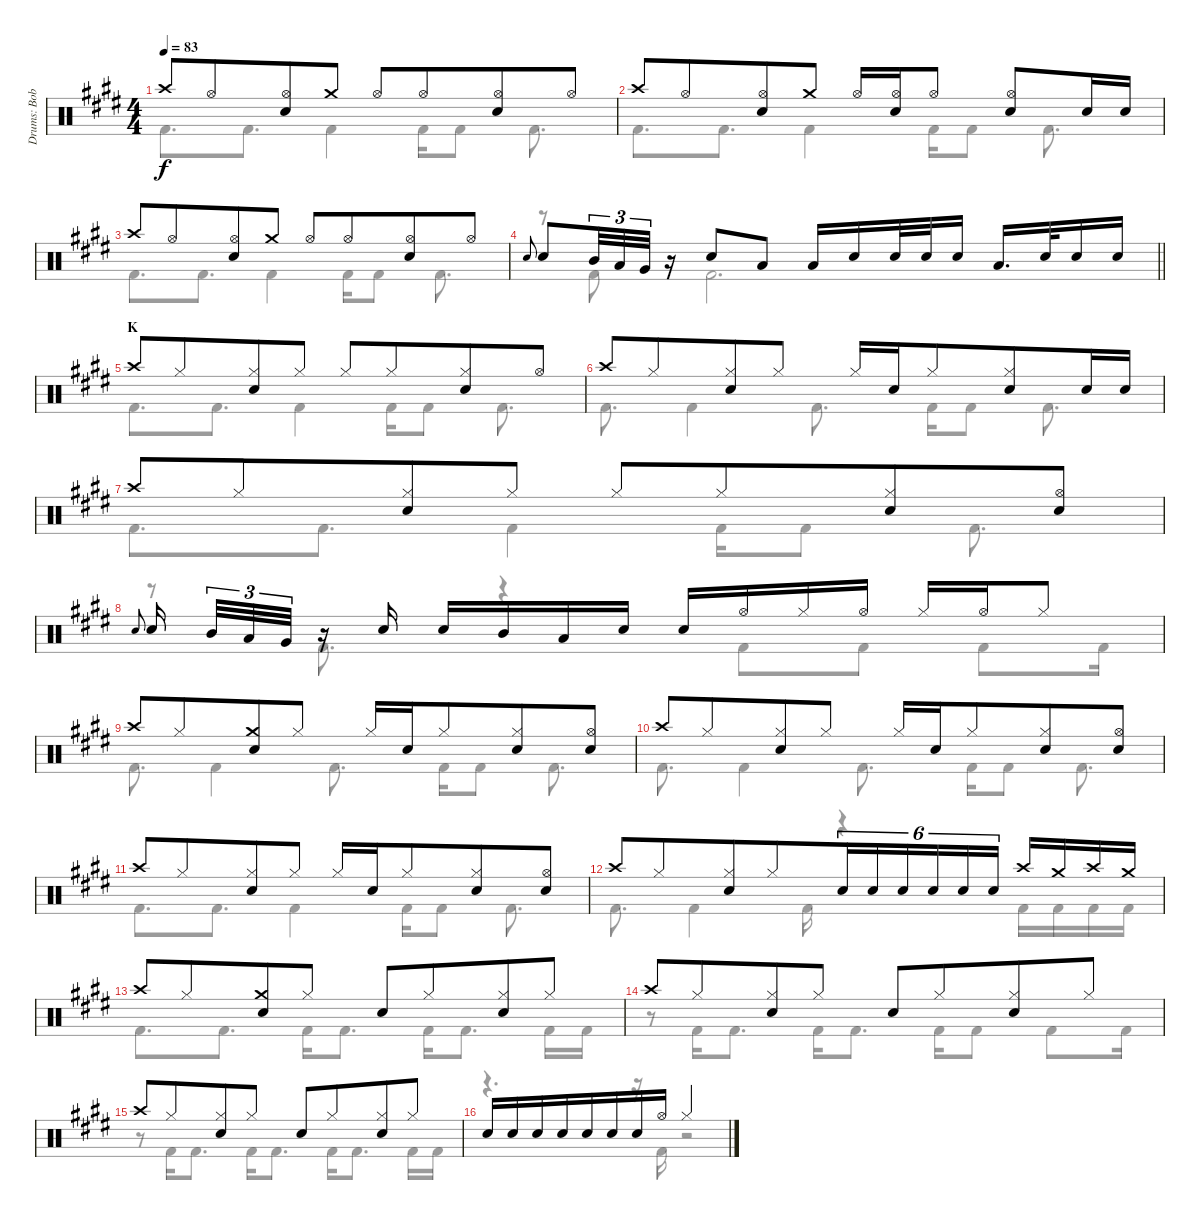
\track ("Drums: Bobby" "Drums: Bob") {instrument percussion}
\staff {score}
\articulation defaults
\voice
\ts (4 4)
\tempo 83
\clef neutral
\ks e "Crash high (hit)".8{dy f} "Hi-Hat (open)".8{beam merge}
("Hi-Hat (open)" "Snare (hit) 2").8 "Crash medium (hit)".8 "Hi-Hat (open)".8 "Hi-Hat (open)".8{beam merge} ("Hi-Hat (open)" "Snare (hit) 2").8 "Hi-Hat (open)".8 |
"Crash high (hit)".8 "Hi-Hat (open)".8{beam merge} ("Hi-Hat (open)" "Snare (hit) 2").8 "Crash medium (hit)".8 "Hi-Hat (open)".16{beam merge} ("Hi-Hat (open)" "Snare (hit) 2").16 "Hi-Hat (open)".8 ("Hi-Hat (open)" "Snare (hit) 2").8 "Snare (hit) 2".16 "Snare (hit) 2".16 |
"Crash high (hit)".8 "Hi-Hat (open)".8{beam merge} ("Hi-Hat (open)" "Snare (hit) 2").8 "Crash medium (hit)".8 "Hi-Hat (open)".8 "Hi-Hat (open)".8{beam merge} ("Hi-Hat (open)" "Snare (hit) 2").8 "Hi-Hat (open)".8 |
\barLineRight lightlight "Electric Snare (hit)".8{gr onbeat} "Snare (hit) 2".8{beam merge} "Mid Tom (hit)".32{tu (3 2)} "Low Tom (hit)".32{tu (3 2) beam merge} "Very Low Tom (hit)".32{tu (3 2)}
r.16 "Snare (hit) 2".8 "Low Tom (hit)".8 "Low Tom (hit)".16 "Snare (hit) 2".16 "Snare (hit) 2".32 "Snare (hit) 2".32 "Snare (hit) 2".16 "Low Tom (hit)".16{d} "Snare (hit) 2".32 "Snare (hit) 2".16 "Snare (hit) 2".16 |
\section ("" "K")
"Crash high (hit)".8 "Hi-Hat (closed)".8{beam merge} ("Hi-Hat (closed)" "Snare (hit) 2").8 "Hi-Hat (closed)".8 "Hi-Hat (closed)".8 "Hi-Hat (closed)".8{beam merge} ("Hi-Hat (closed)" "Snare (hit) 2").8 "Hi-Hat (open)".8 |
"Crash high (hit)".8 "Hi-Hat (closed)".8{beam merge} ("Hi-Hat (closed)" "Snare (hit) 2").8 "Hi-Hat (closed)".8 "Hi-Hat (closed)".16 "Snare (hit) 2".16{beam merge} "Hi-Hat (closed)".8{beam merge} ("Hi-Hat (closed)" "Snare (hit) 2").8 "Snare (hit) 2".16 "Snare (hit) 2".16 |
"Crash high (hit)".8 "Hi-Hat (closed)".8{beam merge} ("Hi-Hat (closed)" "Snare (hit) 2").8 "Hi-Hat (closed)".8 "Hi-Hat (closed)".8 "Hi-Hat (closed)".8{beam merge} ("Hi-Hat (closed)" "Snare (hit) 2").8 ("Hi-Hat (open)" "Snare (hit) 2").8 |
"Electric Snare (hit)".8{gr onbeat} "Snare (hit) 2".16{beam splitsecondary} "Mid Tom (hit)".32{tu (3 2)} "Low Tom (hit)".32{tu (3 2) beam merge} "Very Low Tom (hit)".32{tu (3 2)} r.16 "Snare (hit) 2".16 "Snare (hit) 2".16 "Mid Tom (hit)".16 "Low Tom (hit)".16 "Snare (hit) 2".16 "Snare (hit) 2".16 "Hi-Hat (open)".16 "Hi-Hat (closed)".16 "Hi-Hat (open)".16 "Hi-Hat (closed)".16 "Hi-Hat (open)".16 "Hi-Hat (closed)".8 |
"Crash high (hit)".8 "Hi-Hat (closed)".8{beam merge} ("Crash medium (hit)" "Snare (hit) 2").8 "Hi-Hat (closed)".8 "Hi-Hat (closed)".16{beam merge} "Snare (hit) 2".16 "Hi-Hat (closed)".8{beam merge} ("Hi-Hat (closed)" "Snare (hit) 2").8{beam merge} ("Hi-Hat (open)" "Snare (hit) 2").8 |
"Crash high (hit)".8 "Hi-Hat (closed)".8{beam merge} ("Hi-Hat (closed)" "Snare (hit) 2").8 "Hi-Hat (closed)".8 "Hi-Hat (closed)".16{beam merge} "Snare (hit) 2".16 "Hi-Hat (closed)".8{beam merge} ("Hi-Hat (closed)" "Snare (hit) 2").8{beam merge} ("Hi-Hat (open)" "Snare (hit) 2").8 |
"Crash high (hit)".8 "Hi-Hat (closed)".8{beam merge} ("Hi-Hat (closed)" "Snare (hit) 2").8 "Hi-Hat (closed)".8 "Hi-Hat (closed)".16{beam merge} "Snare (hit) 2".16 "Hi-Hat (closed)".8{beam merge} ("Hi-Hat (closed)" "Snare (hit) 2").8{beam merge} ("Hi-Hat (open)" "Snare (hit) 2").8 |
"Crash high (hit)".8 "Hi-Hat (closed)".8{beam merge} ("Hi-Hat (closed)" "Snare (hit) 2").8 "Hi-Hat (closed)".8{beam merge} "Snare (hit) 2".16{tu (6 4) beam merge} "Snare (hit) 2".16{tu (6 4) beam merge} "Snare (hit) 2".16{tu (6 4) beam merge} "Snare (hit) 2".16{tu (6 4) beam merge} "Snare (hit) 2".16{tu (6 4) beam merge} "Snare (hit) 2".16{tu (6 4)} "Crash high (hit)".16 "Crash medium (hit)".16 "Crash high (hit)".16 "Crash medium (hit)".16 |
"Crash high (hit)".8 "Hi-Hat (closed)".8{beam merge} ("Crash medium (hit)" "Snare (hit) 2").8 "Hi-Hat (closed)".8 "Snare (hit) 2".8 "Hi-Hat (closed)".8{beam merge} ("Hi-Hat (closed)" "Snare (hit) 2").8{beam merge} "Hi-Hat (closed)".8 |
"Crash high (hit)".8 "Hi-Hat (closed)".8{beam merge} ("Hi-Hat (closed)" "Snare (hit) 2").8 "Hi-Hat (closed)".8 "Snare (hit) 2".8 "Hi-Hat (closed)".8{beam merge} ("Hi-Hat (closed)" "Snare (hit) 2").8{beam merge} "Hi-Hat (closed)".8 |
"Crash high (hit)".8 "Hi-Hat (closed)".8{beam merge} ("Hi-Hat (closed)" "Snare (hit) 2").8 "Hi-Hat (closed)".8 "Snare (hit) 2".8 "Hi-Hat (closed)".8{beam merge} ("Hi-Hat (closed)" "Snare (hit) 2").8{beam merge} "Hi-Hat (closed)".8 |
"Snare (hit) 2".16{beam merge} "Snare (hit) 2".16{beam merge} "Snare (hit) 2".16{beam merge} "Snare (hit) 2".16{beam merge} "Snare (hit) 2".16{beam merge} "Snare (hit) 2".16 "Snare (hit) 2".16 "Hi-Hat (open)".16 "Hi-Hat (closed)".2
\voice
\clef neutral
\ottava regular
\simile none
\ks e "Kick (hit) 2".8{d dy f} "Kick (hit) 2".8{d} "Kick (hit) 2".4 "Kick (hit) 2".16 "Kick (hit) 2".8 "Kick (hit) 2".8{d}
|
"Kick (hit) 2".8{d} "Kick (hit) 2".8{d} "Kick (hit) 2".4 "Kick (hit) 2".16 "Kick (hit) 2".8 "Kick (hit) 2".8{d} |
"Kick (hit) 2".8{d} "Kick (hit) 2".8{d} "Kick (hit) 2".4 "Kick (hit) 2".16 "Kick (hit) 2".8 "Kick (hit) 2".8{d} |
\barLineRight lightlight
r.8 "Kick (hit) 2".8 "Kick (hit) 2".2{d} |
"Kick (hit) 2".8{d} "Kick (hit) 2".8{d} "Kick (hit) 2".4 "Kick (hit) 2".16 "Kick (hit) 2".8 "Kick (hit) 2".8{d} |
"Kick (hit) 2".8{d} "Kick (hit) 2".4 "Kick (hit) 2".8{d} "Kick (hit) 2".16 "Kick (hit) 2".8 "Kick (hit) 2".8{d} |
"Kick (hit) 2".8{d} "Kick (hit) 2".8{d} "Kick (hit) 2".4 "Kick (hit) 2".16 "Kick (hit) 2".8 "Kick (hit) 2".8{d} |
r.8 "Kick (hit) 2".8{d} r.4 "Kick (hit) 2".8 "Kick (hit) 2".8 "Kick (hit) 2".8 "Kick (hit) 2".16 |
"Kick (hit) 2".8{d} "Kick (hit) 2".4 "Kick (hit) 2".8{d} "Kick (hit) 2".16 "Kick (hit) 2".8 "Kick (hit) 2".8{d} |
"Kick (hit) 2".8{d} "Kick (hit) 2".4 "Kick (hit) 2".8{d} "Kick (hit) 2".16 "Kick (hit) 2".8 "Kick (hit) 2".8{d} |
"Kick (hit) 2".8{d} "Kick (hit) 2".8{d} "Kick (hit) 2".4 "Kick (hit) 2".16 "Kick (hit) 2".8 "Kick (hit) 2".8{d} |
"Kick (hit) 2".8{d} "Kick (hit) 2".4 "Kick (hit) 2".16 r.4 "Kick (hit) 2".16 "Kick (hit) 2".16 "Kick (hit) 2".16 "Kick (hit) 2".16 |
"Kick (hit) 2".8{d} "Kick (hit) 2".8{d} "Kick (hit) 2".16 "Kick (hit) 2".8{d} "Kick (hit) 2".16 "Kick (hit) 2".8{d} "Kick (hit) 2".16 "Kick (hit) 2".16 |
r.8 "Kick (hit) 2".16 "Kick (hit) 2".8{d} "Kick (hit) 2".16 "Kick (hit) 2".8{d} "Kick (hit) 2".16 "Kick (hit) 2".8 "Kick (hit) 2".8 "Kick (hit) 2".16 |
r.8 "Kick (hit) 2".16 "Kick (hit) 2".8{d} "Kick (hit) 2".16 "Kick (hit) 2".8{d} "Kick (hit) 2".16 "Kick (hit) 2".8{d} "Kick (hit) 2".16 "Kick (hit) 2".16 |
r.4{d} r.16 "Kick (hit) 2".16 r.2
